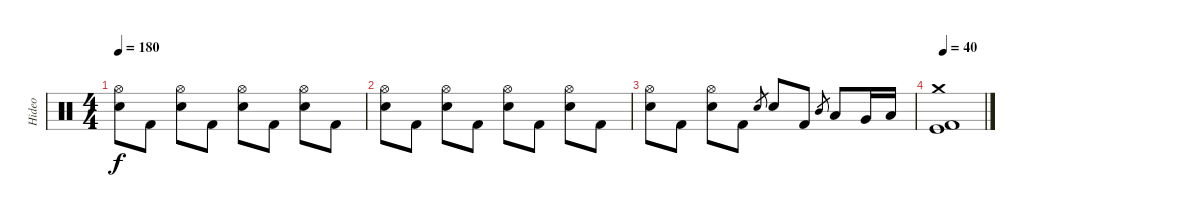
\track ("Hideo" "Hideo") {instrument percussion}
\staff {score}
\articulation defaults
\ts (4 4)
\tempo 180
\clef neutral
\ks c
("Hi-Hat (open)" "Electric Snare (hit)").8{dy f} "Kick (hit) 2".8 ("Hi-Hat (open)" "Electric Snare (hit)").8 "Kick (hit) 2".8 ("Hi-Hat (open)" "Electric Snare (hit)").8 "Kick (hit) 2".8 ("Hi-Hat (open)" "Electric Snare (hit)").8 "Kick (hit) 2".8 |
("Hi-Hat (open)" "Electric Snare (hit)").8 "Kick (hit) 2".8 ("Hi-Hat (open)" "Electric Snare (hit)").8 "Kick (hit) 2".8 ("Hi-Hat (open)" "Electric Snare (hit)").8 "Kick (hit) 2".8 ("Hi-Hat (open)" "Electric Snare (hit)").8 "Kick (hit) 2".8 |
("Hi-Hat (open)" "Electric Snare (hit)").8 "Kick (hit) 2".8 ("Hi-Hat (open)" "Electric Snare (hit)").8 "Kick (hit) 2".8 "Electric Snare (hit)".8{gr} "Electric Snare (hit)".8 "Kick (hit) 2".8 "Mid Tom (hit)".8{gr} "Low Tom (hit)".8 "Very Low Tom (hit)".16 "Low Floor Tom (hit)".16 |
\tempo 40
("Crash medium (hit)" "Kick (hit) 2" "Kick (hit)").1
